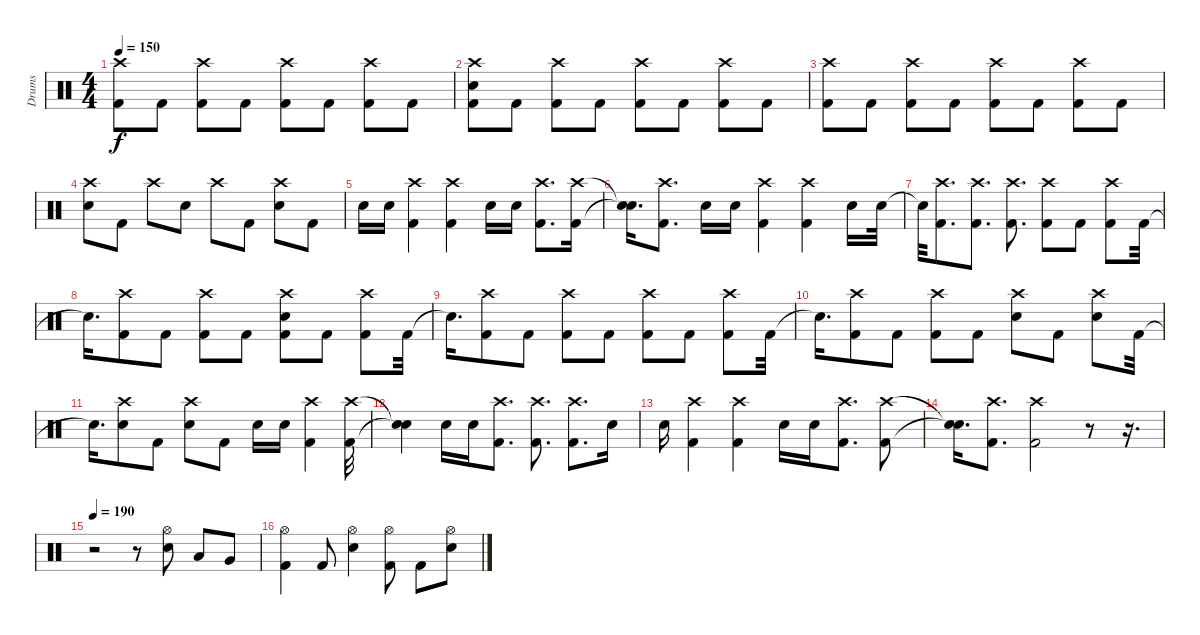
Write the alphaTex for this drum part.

\track ("Drums" "Drums") {instrument percussion}
\staff {score}
\articulation defaults
\ts (4 4)
\tempo 150
\clef neutral
\ks c
("Crash high (hit)" "Kick (hit) 2").8{dy f} "Kick (hit) 2".8 ("Crash high (hit)" "Kick (hit) 2").8 "Kick (hit) 2".8 ("Crash high (hit)" "Kick (hit) 2").8 "Kick (hit) 2".8 ("Crash high (hit)" "Kick (hit) 2").8 "Kick (hit) 2".8 |
("Crash high (hit)" "Electric Snare (hit)" "Kick (hit) 2").8 "Kick (hit) 2".8 ("Crash high (hit)" "Kick (hit) 2").8 "Kick (hit) 2".8 ("Crash high (hit)" "Kick (hit) 2").8 "Kick (hit) 2".8 ("Crash high (hit)" "Kick (hit) 2").8 "Kick (hit) 2".8 |
("Crash high (hit)" "Kick (hit) 2").8 "Kick (hit) 2".8 ("Crash high (hit)" "Kick (hit) 2").8 "Kick (hit) 2".8 ("Crash high (hit)" "Kick (hit) 2").8 "Kick (hit) 2".8 ("Crash high (hit)" "Kick (hit) 2").8 "Kick (hit) 2".8 |
("Crash high (hit)" "Electric Snare (hit)").8 "Kick (hit) 2".8 "Crash high (hit)".8 "Electric Snare (hit)".8 "Crash high (hit)".8 "Kick (hit) 2".8 ("Crash high (hit)" "Electric Snare (hit)").8 "Kick (hit) 2".8 |
"Electric Snare (hit)".16 "Electric Snare (hit)".16 ("Crash high (hit)" "Kick (hit) 2").4 ("Crash high (hit)" "Kick (hit) 2").4 "Electric Snare (hit)".16 "Electric Snare (hit)".16 ("Crash high (hit)" "Kick (hit) 2").8{d} ("Crash high (hit)" "Kick (hit) 2").16 |
("Snare (hit)"{t} "Snare (hit)"{t}).16{d} ("Crash high (hit)" "Kick (hit) 2").8{d} "Electric Snare (hit)".16 "Electric Snare (hit)".16 ("Crash high (hit)" "Kick (hit) 2").4 ("Crash high (hit)" "Kick (hit) 2").4 "Electric Snare (hit)".16 "Electric Snare (hit)".32 |
"Snare (hit)"{t}.32 ("Crash high (hit)" "Kick (hit) 2").8{d} ("Crash high (hit)" "Kick (hit) 2").8{d} ("Crash high (hit)" "Kick (hit) 2").8{d} ("Crash high (hit)" "Kick (hit) 2").8 "Kick (hit) 2".8 ("Crash high (hit)" "Kick (hit) 2").8 "Kick (hit) 2".32 |
"Snare (hit)"{t}.16{d} ("Crash high (hit)" "Kick (hit) 2").8 "Kick (hit) 2".8 ("Crash high (hit)" "Kick (hit) 2").8 "Kick (hit) 2".8 ("Crash high (hit)" "Electric Snare (hit)" "Kick (hit) 2").8 "Kick (hit) 2".8 ("Crash high (hit)" "Kick (hit) 2").8 "Kick (hit) 2".32 |
"Snare (hit)"{t}.16{d} ("Crash high (hit)" "Kick (hit) 2").8 "Kick (hit) 2".8 ("Crash high (hit)" "Kick (hit) 2").8 "Kick (hit) 2".8 ("Crash high (hit)" "Kick (hit) 2").8 "Kick (hit) 2".8 ("Crash high (hit)" "Kick (hit) 2").8 "Kick (hit) 2".32 |
"Snare (hit)"{t}.16{d} ("Crash high (hit)" "Kick (hit) 2").8 "Kick (hit) 2".8 ("Crash high (hit)" "Kick (hit) 2").8 "Kick (hit) 2".8 ("Crash high (hit)" "Electric Snare (hit)").8 "Kick (hit) 2".8 ("Crash high (hit)" "Electric Snare (hit)").8 "Kick (hit) 2".32 |
"Snare (hit)"{t}.16{d} ("Crash high (hit)" "Electric Snare (hit)").8 "Kick (hit) 2".8 ("Crash high (hit)" "Electric Snare (hit)").8 "Kick (hit) 2".8 "Electric Snare (hit)".16 "Electric Snare (hit)".16 ("Crash high (hit)" "Kick (hit) 2").4 ("Crash high (hit)" "Kick (hit) 2").32 |
("Snare (hit)"{t} "Snare (hit)"{t}).4 "Electric Snare (hit)".16 "Electric Snare (hit)".16 ("Crash high (hit)" "Kick (hit) 2").8{d} ("Crash high (hit)" "Kick (hit) 2").8{d} ("Crash high (hit)" "Kick (hit) 2").8{d} "Electric Snare (hit)".16 |
"Electric Snare (hit)".16 ("Crash high (hit)" "Kick (hit) 2").4 ("Crash high (hit)" "Kick (hit) 2").4 "Electric Snare (hit)".16 "Electric Snare (hit)".16 ("Crash high (hit)" "Kick (hit) 2").8{d} ("Crash high (hit)" "Kick (hit) 2").8 |
("Snare (hit)"{t} "Snare (hit)"{t}).16{d} ("Crash high (hit)" "Kick (hit) 2").8{d} ("Crash high (hit)" "Kick (hit) 2").2 r.8 r.16{d} |
\tempo 190
r.2 r.8 ("Hi-Hat (open)" "Electric Snare (hit)").8 "Low Tom (hit)".8 "Very Low Tom (hit)".8 |
("Hi-Hat (open)" "Kick (hit) 2").4 "Kick (hit) 2".8 ("Hi-Hat (open)" "Electric Snare (hit)").4 ("Hi-Hat (open)" "Kick (hit) 2").8 "Kick (hit) 2".8 ("Hi-Hat (open)" "Electric Snare (hit)").8
